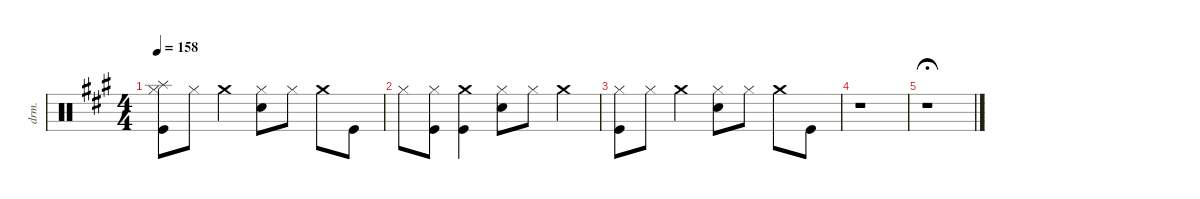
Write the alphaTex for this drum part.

\defaultSystemsLayout 4
\hideDynamics
\bracketExtendMode groupsimilarinstruments
\otherSystemsTrackNameOrientation horizontal
\track ("Drums" "drm.") {defaultSystemsLayout 4 instrument percussion}
\staff {score}
\articulation defaults
\ts (4 4)
\tempo 158
\clef neutral
\ks f#minor
("Splash (hit)"{acc forcenatural} "Hi-Hat (closed)"{acc forcenatural} "Kick (hit)"{acc forcenatural}).8{dy f beam Down} "Hi-Hat (closed)"{acc forcenatural}.8{dy mp beam Down} "Crash medium (hit)"{acc forcenatural}.4{dy f beam Down} ("Hi-Hat (closed)"{acc forcenatural} "Snare (hit) 2"{acc forcenatural}).8{dy mp beam Down} "Hi-Hat (closed)"{acc forcenatural}.8{beam Down} "Crash medium (hit)"{acc forcenatural}.8{dy f beam Down} "Kick (hit)"{acc forcenatural}.8{beam Down} |
"Hi-Hat (closed)"{acc forcenatural}.8{dy mp beam Down} ("Hi-Hat (closed)"{acc forcenatural} "Kick (hit)"{acc forcenatural}).8{beam Down} ("Crash medium (hit)"{acc forcenatural} "Kick (hit)"{acc forcenatural}).4{dy f beam Down} ("Hi-Hat (closed)"{acc forcenatural} "Snare (hit) 2"{acc forcenatural}).8{dy mp beam Down} "Hi-Hat (closed)"{acc forcenatural}.8{beam Down} "Crash medium (hit)"{acc forcenatural}.4{dy f beam Down} |
("Hi-Hat (closed)"{acc forcenatural} "Kick (hit)"{acc forcenatural}).8{dy mp beam Down} "Hi-Hat (closed)"{acc forcenatural}.8{beam Down} "Crash medium (hit)"{acc forcenatural}.4{dy f beam Down} ("Hi-Hat (closed)"{acc forcenatural} "Snare (hit) 2"{acc forcenatural}).8{dy mp beam Down} "Hi-Hat (closed)"{acc forcenatural}.8{beam Down} "Crash medium (hit)"{acc forcenatural}.8{dy f beam Down} "Kick (hit)"{acc forcenatural}.8{beam Down} |
r.1{beam Down} |
r.1{fermata (medium 1) beam Down}
